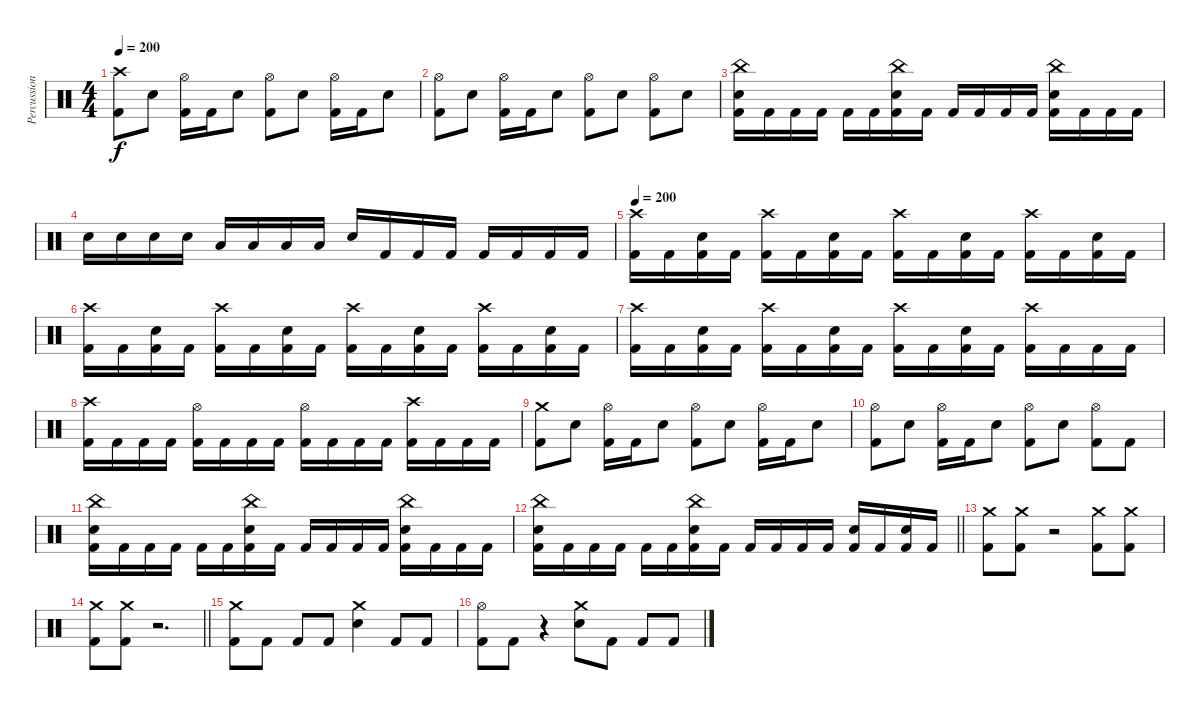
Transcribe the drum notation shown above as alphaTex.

\track ("Percussion" "Percussion") {instrument percussion}
\staff {score}
\articulation defaults
\ts (4 4)
\tempo 200
\clef neutral
\ks c
("Crash high (hit)" "Kick (hit) 2").8{dy f} "Electric Snare (hit)".8 ("Hi-Hat (open)" "Kick (hit) 2").16 "Kick (hit) 2".16 "Electric Snare (hit)".8 ("Hi-Hat (open)" "Kick (hit) 2").8 "Electric Snare (hit)".8 ("Hi-Hat (open)" "Kick (hit) 2").16 "Kick (hit) 2".16 "Electric Snare (hit)".8 |
("Hi-Hat (open)" "Kick (hit) 2").8 "Electric Snare (hit)".8 ("Hi-Hat (open)" "Kick (hit) 2").16 "Kick (hit) 2".16 "Electric Snare (hit)".8 ("Hi-Hat (open)" "Kick (hit) 2").8 "Electric Snare (hit)".8 ("Hi-Hat (open)" "Kick (hit) 2").8 "Electric Snare (hit)".8 |
("China (hit)" "Electric Snare (hit)" "Kick (hit) 2").16 "Kick (hit) 2".16 "Kick (hit) 2".16 "Kick (hit) 2".16 "Kick (hit) 2".16 "Kick (hit) 2".16 ("China (hit)" "Electric Snare (hit)" "Kick (hit) 2").16 "Kick (hit) 2".16 "Kick (hit) 2".16 "Kick (hit) 2".16 "Kick (hit) 2".16 "Kick (hit) 2".16 ("China (hit)" "Electric Snare (hit)" "Kick (hit) 2").16 "Kick (hit) 2".16 "Kick (hit) 2".16 "Kick (hit) 2".16 |
"Electric Snare (hit)".16 "Electric Snare (hit)".16 "Electric Snare (hit)".16 "Electric Snare (hit)".16 "Low Floor Tom (hit)".16 "Low Floor Tom (hit)".16 "Low Floor Tom (hit)".16 "Low Floor Tom (hit)".16 "Electric Snare (hit)".16 "Kick (hit) 2".16 "Kick (hit) 2".16 "Kick (hit) 2".16 "Kick (hit) 2".16 "Kick (hit) 2".16 "Kick (hit) 2".16 "Kick (hit) 2".16 |
\tempo 200
("Crash high (hit)" "Kick (hit) 2").16 "Kick (hit) 2".16 ("Electric Snare (hit)" "Kick (hit) 2").16 "Kick (hit) 2".16 ("Crash high (hit)" "Kick (hit) 2").16 "Kick (hit) 2".16 ("Electric Snare (hit)" "Kick (hit) 2").16 "Kick (hit) 2".16 ("Crash high (hit)" "Kick (hit) 2").16 "Kick (hit) 2".16 ("Electric Snare (hit)" "Kick (hit) 2").16 "Kick (hit) 2".16 ("Crash high (hit)" "Kick (hit) 2").16 "Kick (hit) 2".16 ("Electric Snare (hit)" "Kick (hit) 2").16 "Kick (hit) 2".16 |
("Crash high (hit)" "Kick (hit) 2").16 "Kick (hit) 2".16 ("Electric Snare (hit)" "Kick (hit) 2").16 "Kick (hit) 2".16 ("Crash high (hit)" "Kick (hit) 2").16 "Kick (hit) 2".16 ("Electric Snare (hit)" "Kick (hit) 2").16 "Kick (hit) 2".16 ("Crash high (hit)" "Kick (hit) 2").16 "Kick (hit) 2".16 ("Electric Snare (hit)" "Kick (hit) 2").16 "Kick (hit) 2".16 ("Crash high (hit)" "Kick (hit) 2").16 "Kick (hit) 2".16 ("Electric Snare (hit)" "Kick (hit) 2").16 "Kick (hit) 2".16 |
("Crash high (hit)" "Kick (hit) 2").16 "Kick (hit) 2".16 ("Electric Snare (hit)" "Kick (hit) 2").16 "Kick (hit) 2".16 ("Crash high (hit)" "Kick (hit) 2").16 "Kick (hit) 2".16 ("Electric Snare (hit)" "Kick (hit) 2").16 "Kick (hit) 2".16 ("Crash high (hit)" "Kick (hit) 2").16 "Kick (hit) 2".16 ("Electric Snare (hit)" "Kick (hit) 2").16 "Kick (hit) 2".16 ("Crash high (hit)" "Kick (hit) 2").16 "Kick (hit) 2".16 "Kick (hit) 2".16 "Kick (hit) 2".16 |
("Crash high (hit)" "Kick (hit) 2").16 "Kick (hit) 2".16 "Kick (hit) 2".16 "Kick (hit) 2".16 ("Hi-Hat (open)" "Kick (hit) 2").16 "Kick (hit) 2".16 "Kick (hit) 2".16 "Kick (hit) 2".16 ("Hi-Hat (open)" "Kick (hit) 2").16 "Kick (hit) 2".16 "Kick (hit) 2".16 "Kick (hit) 2".16 ("Crash high (hit)" "Kick (hit) 2").16 "Kick (hit) 2".16 "Kick (hit) 2".16 "Kick (hit) 2".16 |
("Crash medium (hit)" "Kick (hit) 2").8 "Electric Snare (hit)".8 ("Hi-Hat (open)" "Kick (hit) 2").16 "Kick (hit) 2".16 "Electric Snare (hit)".8 ("Hi-Hat (open)" "Kick (hit) 2").8 "Electric Snare (hit)".8 ("Hi-Hat (open)" "Kick (hit) 2").16 "Kick (hit) 2".16 "Electric Snare (hit)".8 |
("Hi-Hat (open)" "Kick (hit) 2").8 "Electric Snare (hit)".8 ("Hi-Hat (open)" "Kick (hit) 2").16 "Kick (hit) 2".16 "Electric Snare (hit)".8 ("Hi-Hat (open)" "Kick (hit) 2").8 "Electric Snare (hit)".8 ("Hi-Hat (open)" "Kick (hit) 2").8 "Kick (hit) 2".8 |
("China (hit)" "Electric Snare (hit)" "Kick (hit) 2").16 "Kick (hit) 2".16 "Kick (hit) 2".16 "Kick (hit) 2".16 "Kick (hit) 2".16 "Kick (hit) 2".16 ("China (hit)" "Electric Snare (hit)" "Kick (hit) 2").16 "Kick (hit) 2".16 "Kick (hit) 2".16 "Kick (hit) 2".16 "Kick (hit) 2".16 "Kick (hit) 2".16 ("China (hit)" "Electric Snare (hit)" "Kick (hit) 2").16 "Kick (hit) 2".16 "Kick (hit) 2".16 "Kick (hit) 2".16 |
\barLineRight lightlight
("China (hit)" "Electric Snare (hit)" "Kick (hit) 2").16 "Kick (hit) 2".16 "Kick (hit) 2".16 "Kick (hit) 2".16 "Kick (hit) 2".16 "Kick (hit) 2".16 ("China (hit)" "Electric Snare (hit)" "Kick (hit) 2").16 "Kick (hit) 2".16 "Kick (hit) 2".16 "Kick (hit) 2".16 "Kick (hit) 2".16 "Kick (hit) 2".16 ("Electric Snare (hit)" "Kick (hit) 2").16 "Kick (hit) 2".16 ("Electric Snare (hit)" "Kick (hit) 2").16 "Kick (hit) 2".16 |
\section ("" "")
("Crash medium (hit)" "Kick (hit) 2").8 ("Crash medium (hit)" "Kick (hit) 2").8 r.2 ("Crash medium (hit)" "Kick (hit) 2").8 ("Crash medium (hit)" "Kick (hit) 2").8 |
\barLineRight lightlight
("Crash medium (hit)" "Kick (hit) 2").8 ("Crash medium (hit)" "Kick (hit) 2").8 r.2{d} |
\section ("" "")
("Crash medium (hit)" "Kick (hit) 2").8 "Kick (hit) 2".8 "Kick (hit) 2".8 "Kick (hit) 2".8 ("Crash medium (hit)" "Electric Snare (hit)").4 "Kick (hit) 2".8 "Kick (hit) 2".8 |
("Hi-Hat (open)" "Kick (hit) 2").8 "Kick (hit) 2".8 r.4 ("Crash medium (hit)" "Electric Snare (hit)").8 "Kick (hit) 2".8 "Kick (hit) 2".8 "Kick (hit) 2".8
